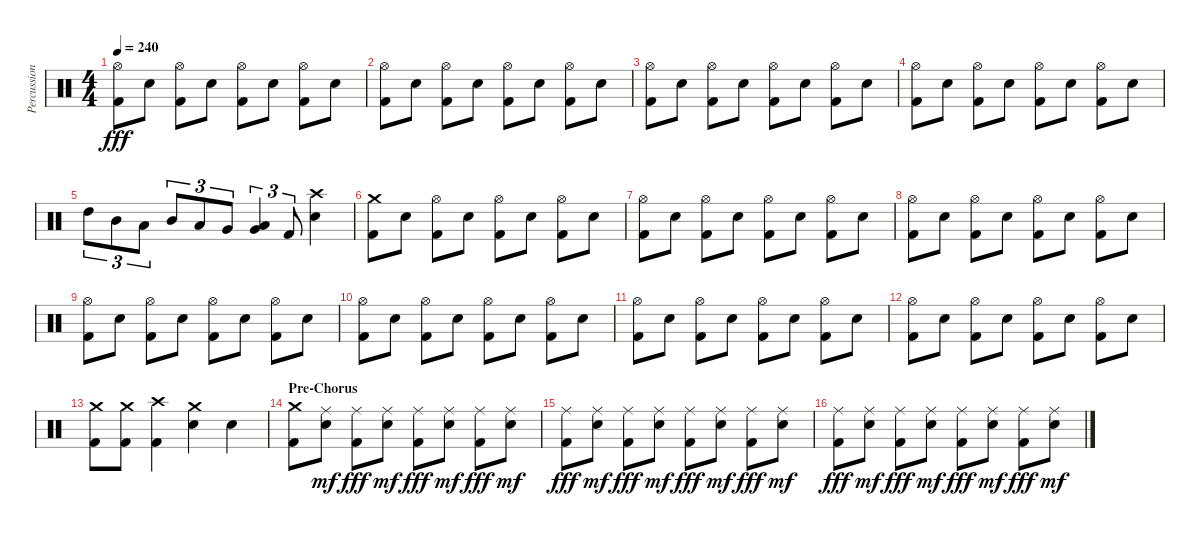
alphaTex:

\track ("Percussion" "Percussion") {instrument percussion}
\staff {score}
\articulation defaults
\ts (4 4)
\tempo 240
\clef neutral
\ks c
("Kick (hit) 2" "Hi-Hat (open)").8{dy fff} "Electric Snare (hit)".8 ("Kick (hit) 2" "Hi-Hat (open)").8 "Electric Snare (hit)".8 ("Kick (hit) 2" "Hi-Hat (open)").8 "Electric Snare (hit)".8 ("Kick (hit) 2" "Hi-Hat (open)").8 "Electric Snare (hit)".8 |
("Kick (hit) 2" "Hi-Hat (open)").8 "Electric Snare (hit)".8 ("Kick (hit) 2" "Hi-Hat (open)").8 "Electric Snare (hit)".8 ("Kick (hit) 2" "Hi-Hat (open)").8 "Electric Snare (hit)".8 ("Kick (hit) 2" "Hi-Hat (open)").8 "Electric Snare (hit)".8 |
("Kick (hit) 2" "Hi-Hat (open)").8 "Electric Snare (hit)".8 ("Kick (hit) 2" "Hi-Hat (open)").8 "Electric Snare (hit)".8 ("Kick (hit) 2" "Hi-Hat (open)").8 "Electric Snare (hit)".8 ("Kick (hit) 2" "Hi-Hat (open)").8 "Electric Snare (hit)".8 |
("Kick (hit) 2" "Hi-Hat (open)").8 "Electric Snare (hit)".8 ("Kick (hit) 2" "Hi-Hat (open)").8 "Electric Snare (hit)".8 ("Kick (hit) 2" "Hi-Hat (open)").8 "Electric Snare (hit)".8 ("Kick (hit) 2" "Hi-Hat (open)").8 "Electric Snare (hit)".8 |
"High Tom (hit)".8{tu (3 2)} "Mid Tom (hit)".8{tu (3 2)} "Low Tom (hit)".8{tu (3 2)} "Mid Tom (hit)".8{tu (3 2)} "Low Tom (hit)".8{tu (3 2)} "Very Low Tom (hit)".8{tu (3 2)} ("Low Tom (hit)" "Very Low Tom (hit)").4{tu (3 2)} "Kick (hit) 2".8{tu (3 2)} ("Electric Snare (hit)" "Crash high (hit)").4 |
("Kick (hit) 2" "Crash medium (hit)").8 "Electric Snare (hit)".8 ("Kick (hit) 2" "Hi-Hat (open)").8 "Electric Snare (hit)".8 ("Kick (hit) 2" "Hi-Hat (open)").8 "Electric Snare (hit)".8 ("Kick (hit) 2" "Hi-Hat (open)").8 "Electric Snare (hit)".8 |
("Kick (hit) 2" "Hi-Hat (open)").8 "Electric Snare (hit)".8 ("Kick (hit) 2" "Hi-Hat (open)").8 "Electric Snare (hit)".8 ("Kick (hit) 2" "Hi-Hat (open)").8 "Electric Snare (hit)".8 ("Kick (hit) 2" "Hi-Hat (open)").8 "Electric Snare (hit)".8 |
("Kick (hit) 2" "Hi-Hat (open)").8 "Electric Snare (hit)".8 ("Kick (hit) 2" "Hi-Hat (open)").8 "Electric Snare (hit)".8 ("Kick (hit) 2" "Hi-Hat (open)").8 "Electric Snare (hit)".8 ("Kick (hit) 2" "Hi-Hat (open)").8 "Electric Snare (hit)".8 |
("Kick (hit) 2" "Hi-Hat (open)").8 "Electric Snare (hit)".8 ("Kick (hit) 2" "Hi-Hat (open)").8 "Electric Snare (hit)".8 ("Kick (hit) 2" "Hi-Hat (open)").8 "Electric Snare (hit)".8 ("Kick (hit) 2" "Hi-Hat (open)").8 "Electric Snare (hit)".8 |
("Kick (hit) 2" "Hi-Hat (open)").8 "Electric Snare (hit)".8 ("Kick (hit) 2" "Hi-Hat (open)").8 "Electric Snare (hit)".8 ("Kick (hit) 2" "Hi-Hat (open)").8 "Electric Snare (hit)".8 ("Kick (hit) 2" "Hi-Hat (open)").8 "Electric Snare (hit)".8 |
("Kick (hit) 2" "Hi-Hat (open)").8 "Electric Snare (hit)".8 ("Kick (hit) 2" "Hi-Hat (open)").8 "Electric Snare (hit)".8 ("Kick (hit) 2" "Hi-Hat (open)").8 "Electric Snare (hit)".8 ("Kick (hit) 2" "Hi-Hat (open)").8 "Electric Snare (hit)".8 |
("Kick (hit) 2" "Hi-Hat (open)").8 "Electric Snare (hit)".8 ("Kick (hit) 2" "Hi-Hat (open)").8 "Electric Snare (hit)".8 ("Kick (hit) 2" "Hi-Hat (open)").8 "Electric Snare (hit)".8 ("Kick (hit) 2" "Hi-Hat (open)").8 "Electric Snare (hit)".8 |
("Kick (hit) 2" "Crash medium (hit)").8 ("Kick (hit) 2" "Crash medium (hit)").8 ("Kick (hit) 2" "Crash high (hit)").4 ("Electric Snare (hit)" "Crash medium (hit)").4 "Electric Snare (hit)".4 |
\section ("" "Pre-Chorus")
("Kick (hit) 2" "Crash medium (hit)").8 ("Electric Snare (hit)" "Ride (middle)").8{dy mf} ("Kick (hit) 2" "Ride (middle)").8{dy fff} ("Electric Snare (hit)" "Ride (middle)").8{dy mf} ("Kick (hit) 2" "Ride (middle)").8{dy fff} ("Electric Snare (hit)" "Ride (middle)").8{dy mf} ("Kick (hit) 2" "Ride (middle)").8{dy fff} ("Electric Snare (hit)" "Ride (middle)").8{dy mf} |
("Kick (hit) 2" "Ride (middle)").8{dy fff} ("Electric Snare (hit)" "Ride (middle)").8{dy mf} ("Kick (hit) 2" "Ride (middle)").8{dy fff} ("Electric Snare (hit)" "Ride (middle)").8{dy mf} ("Kick (hit) 2" "Ride (middle)").8{dy fff} ("Electric Snare (hit)" "Ride (middle)").8{dy mf} ("Kick (hit) 2" "Ride (middle)").8{dy fff} ("Electric Snare (hit)" "Ride (middle)").8{dy mf} |
("Kick (hit) 2" "Ride (middle)").8{dy fff} ("Electric Snare (hit)" "Ride (middle)").8{dy mf} ("Kick (hit) 2" "Ride (middle)").8{dy fff} ("Electric Snare (hit)" "Ride (middle)").8{dy mf} ("Kick (hit) 2" "Ride (middle)").8{dy fff} ("Electric Snare (hit)" "Ride (middle)").8{dy mf} ("Kick (hit) 2" "Ride (middle)").8{dy fff} ("Electric Snare (hit)" "Ride (middle)").8{dy mf}
